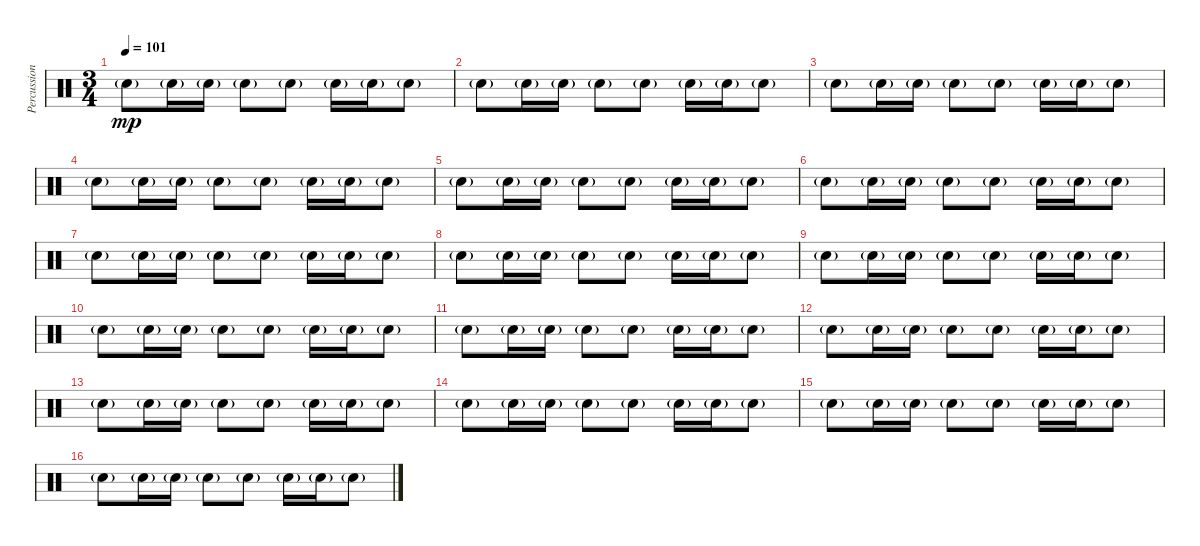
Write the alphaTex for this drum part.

\track ("Percussion" "Percussion") {instrument percussion}
\staff {score}
\articulation defaults
\ts (3 4)
\tempo 101
\clef neutral
\ks c "Snare (hit) 2"{g}.8{dy mp} "Snare (hit) 2"{g}.16 "Snare (hit) 2"{g}.16 "Snare (hit) 2"{g}.8 "Snare (hit) 2"{g}.8 "Snare (hit) 2"{g}.16 "Snare (hit) 2"{g}.16 "Snare (hit) 2"{g}.8
|
"Snare (hit) 2"{g}.8 "Snare (hit) 2"{g}.16 "Snare (hit) 2"{g}.16 "Snare (hit) 2"{g}.8 "Snare (hit) 2"{g}.8 "Snare (hit) 2"{g}.16 "Snare (hit) 2"{g}.16 "Snare (hit) 2"{g}.8 |
"Snare (hit) 2"{g}.8 "Snare (hit) 2"{g}.16 "Snare (hit) 2"{g}.16 "Snare (hit) 2"{g}.8 "Snare (hit) 2"{g}.8 "Snare (hit) 2"{g}.16 "Snare (hit) 2"{g}.16 "Snare (hit) 2"{g}.8 |
"Snare (hit) 2"{g}.8 "Snare (hit) 2"{g}.16 "Snare (hit) 2"{g}.16 "Snare (hit) 2"{g}.8 "Snare (hit) 2"{g}.8 "Snare (hit) 2"{g}.16 "Snare (hit) 2"{g}.16 "Snare (hit) 2"{g}.8 |
"Snare (hit) 2"{g}.8 "Snare (hit) 2"{g}.16 "Snare (hit) 2"{g}.16 "Snare (hit) 2"{g}.8 "Snare (hit) 2"{g}.8 "Snare (hit) 2"{g}.16 "Snare (hit) 2"{g}.16 "Snare (hit) 2"{g}.8 |
"Snare (hit) 2"{g}.8 "Snare (hit) 2"{g}.16 "Snare (hit) 2"{g}.16 "Snare (hit) 2"{g}.8 "Snare (hit) 2"{g}.8 "Snare (hit) 2"{g}.16 "Snare (hit) 2"{g}.16 "Snare (hit) 2"{g}.8 |
"Snare (hit) 2"{g}.8 "Snare (hit) 2"{g}.16 "Snare (hit) 2"{g}.16 "Snare (hit) 2"{g}.8 "Snare (hit) 2"{g}.8 "Snare (hit) 2"{g}.16 "Snare (hit) 2"{g}.16 "Snare (hit) 2"{g}.8 |
"Snare (hit) 2"{g}.8 "Snare (hit) 2"{g}.16 "Snare (hit) 2"{g}.16 "Snare (hit) 2"{g}.8 "Snare (hit) 2"{g}.8 "Snare (hit) 2"{g}.16 "Snare (hit) 2"{g}.16 "Snare (hit) 2"{g}.8 |
"Snare (hit) 2"{g}.8 "Snare (hit) 2"{g}.16 "Snare (hit) 2"{g}.16 "Snare (hit) 2"{g}.8 "Snare (hit) 2"{g}.8 "Snare (hit) 2"{g}.16 "Snare (hit) 2"{g}.16 "Snare (hit) 2"{g}.8 |
"Snare (hit) 2"{g}.8 "Snare (hit) 2"{g}.16 "Snare (hit) 2"{g}.16 "Snare (hit) 2"{g}.8 "Snare (hit) 2"{g}.8 "Snare (hit) 2"{g}.16 "Snare (hit) 2"{g}.16 "Snare (hit) 2"{g}.8 |
"Snare (hit) 2"{g}.8 "Snare (hit) 2"{g}.16 "Snare (hit) 2"{g}.16 "Snare (hit) 2"{g}.8 "Snare (hit) 2"{g}.8 "Snare (hit) 2"{g}.16 "Snare (hit) 2"{g}.16 "Snare (hit) 2"{g}.8 |
"Snare (hit) 2"{g}.8 "Snare (hit) 2"{g}.16 "Snare (hit) 2"{g}.16 "Snare (hit) 2"{g}.8 "Snare (hit) 2"{g}.8 "Snare (hit) 2"{g}.16 "Snare (hit) 2"{g}.16 "Snare (hit) 2"{g}.8 |
"Snare (hit) 2"{g}.8 "Snare (hit) 2"{g}.16 "Snare (hit) 2"{g}.16 "Snare (hit) 2"{g}.8 "Snare (hit) 2"{g}.8 "Snare (hit) 2"{g}.16 "Snare (hit) 2"{g}.16 "Snare (hit) 2"{g}.8 |
"Snare (hit) 2"{g}.8 "Snare (hit) 2"{g}.16 "Snare (hit) 2"{g}.16 "Snare (hit) 2"{g}.8 "Snare (hit) 2"{g}.8 "Snare (hit) 2"{g}.16 "Snare (hit) 2"{g}.16 "Snare (hit) 2"{g}.8 |
"Snare (hit) 2"{g}.8 "Snare (hit) 2"{g}.16 "Snare (hit) 2"{g}.16 "Snare (hit) 2"{g}.8 "Snare (hit) 2"{g}.8 "Snare (hit) 2"{g}.16 "Snare (hit) 2"{g}.16 "Snare (hit) 2"{g}.8 |
"Snare (hit) 2"{g}.8 "Snare (hit) 2"{g}.16 "Snare (hit) 2"{g}.16 "Snare (hit) 2"{g}.8 "Snare (hit) 2"{g}.8 "Snare (hit) 2"{g}.16 "Snare (hit) 2"{g}.16 "Snare (hit) 2"{g}.8
